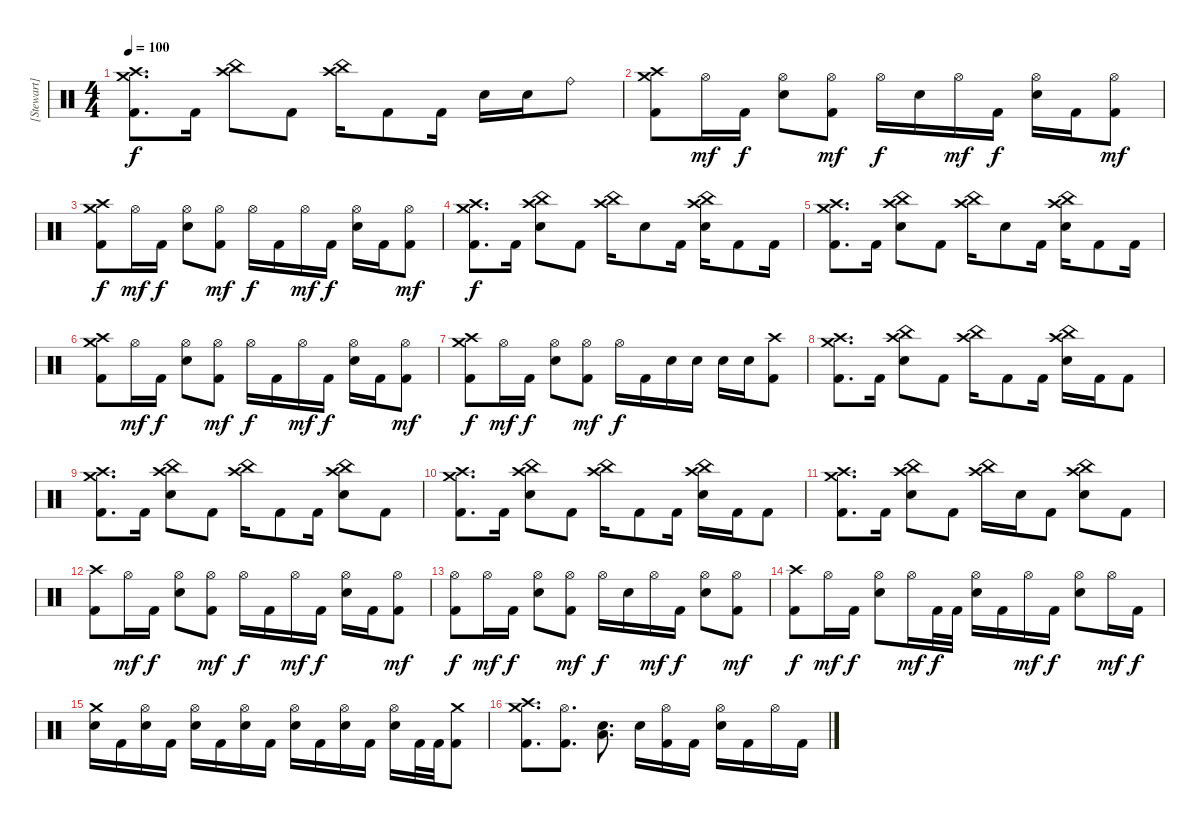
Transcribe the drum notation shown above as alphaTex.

\track ("[Stewart]" "[Stewart]") {instrument percussion}
\staff {score}
\articulation defaults
\ts (4 4)
\tempo 100
\clef neutral
\ks c
("Crash high (hit)" "Crash medium (hit)" "Kick (hit) 2").8{d dy f} "Kick (hit) 2".16 ("Crash high (hit)" "China (hit)").8 "Kick (hit) 2".8 ("Crash high (hit)" "China (hit)").16 "Kick (hit) 2".8 "Kick (hit) 2".16 "Electric Snare (hit)".16 "Electric Snare (hit)".16 "Ride (bell)".8 |
("Crash high (hit)" "Crash medium (hit)" "Kick (hit) 2").8 "Hi-Hat (open)".16{dy mf} "Kick (hit) 2".16{dy f} ("Hi-Hat (open)" "Electric Snare (hit)").8 ("Hi-Hat (open)" "Kick (hit) 2").8{dy mf} "Hi-Hat (open)".16{dy f} "Electric Snare (hit)".16 "Hi-Hat (open)".16{dy mf} "Kick (hit) 2".16{dy f} ("Hi-Hat (open)" "Electric Snare (hit)").16 "Kick (hit) 2".16 ("Hi-Hat (open)" "Kick (hit) 2").8{dy mf} |
("Crash high (hit)" "Crash medium (hit)" "Kick (hit) 2").8{dy f} "Hi-Hat (open)".16{dy mf} "Kick (hit) 2".16{dy f} ("Hi-Hat (open)" "Electric Snare (hit)").8 ("Hi-Hat (open)" "Kick (hit) 2").8{dy mf} "Hi-Hat (open)".16{dy f} "Kick (hit) 2".16 "Hi-Hat (open)".16{dy mf} "Kick (hit) 2".16{dy f} ("Hi-Hat (open)" "Electric Snare (hit)").16 "Kick (hit) 2".16 ("Hi-Hat (open)" "Kick (hit) 2").8{dy mf} |
("Crash high (hit)" "Crash medium (hit)" "Kick (hit) 2").8{d dy f} "Kick (hit) 2".16 ("Crash high (hit)" "China (hit)" "Electric Snare (hit)").8 "Kick (hit) 2".8 ("Crash high (hit)" "China (hit)").16 "Electric Snare (hit)".8 "Kick (hit) 2".16 ("Crash high (hit)" "China (hit)" "Electric Snare (hit)").16 "Kick (hit) 2".8 "Kick (hit) 2".16 |
("Crash high (hit)" "Crash medium (hit)" "Kick (hit) 2").8{d} "Kick (hit) 2".16 ("Crash high (hit)" "China (hit)" "Electric Snare (hit)").8 "Kick (hit) 2".8 ("Crash high (hit)" "China (hit)").16 "Electric Snare (hit)".8 "Kick (hit) 2".16 ("Crash high (hit)" "China (hit)" "Electric Snare (hit)").16 "Kick (hit) 2".8 "Kick (hit) 2".16 |
("Crash high (hit)" "Crash medium (hit)" "Kick (hit) 2").8 "Hi-Hat (open)".16{dy mf} "Kick (hit) 2".16{dy f} ("Hi-Hat (open)" "Electric Snare (hit)").8 ("Hi-Hat (open)" "Kick (hit) 2").8{dy mf} "Hi-Hat (open)".16{dy f} "Kick (hit) 2".16 "Hi-Hat (open)".16{dy mf} "Kick (hit) 2".16{dy f} ("Hi-Hat (open)" "Electric Snare (hit)").16 "Kick (hit) 2".16 ("Hi-Hat (open)" "Kick (hit) 2").8{dy mf} |
("Crash high (hit)" "Crash medium (hit)" "Kick (hit) 2").8{dy f} "Hi-Hat (open)".16{dy mf} "Kick (hit) 2".16{dy f} ("Hi-Hat (open)" "Electric Snare (hit)").8 ("Hi-Hat (open)" "Kick (hit) 2").8{dy mf} "Hi-Hat (open)".16{dy f} "Kick (hit) 2".16 "Electric Snare (hit)".16 "Electric Snare (hit)".16 "Electric Snare (hit)".16 "Electric Snare (hit)".16 ("Crash high (hit)" "Kick (hit) 2").8 |
("Crash high (hit)" "Crash medium (hit)" "Kick (hit) 2").8{d} "Kick (hit) 2".16 ("Crash high (hit)" "China (hit)" "Electric Snare (hit)").8 "Kick (hit) 2".8 ("Crash high (hit)" "China (hit)").16 "Kick (hit) 2".8 "Kick (hit) 2".16 ("Crash high (hit)" "China (hit)" "Electric Snare (hit)").16 "Kick (hit) 2".16 "Kick (hit) 2".8 |
("Crash high (hit)" "Crash medium (hit)" "Kick (hit) 2").8{d} "Kick (hit) 2".16 ("Crash high (hit)" "China (hit)" "Electric Snare (hit)").8 "Kick (hit) 2".8 ("Crash high (hit)" "China (hit)").16 "Kick (hit) 2".8 "Kick (hit) 2".16 ("Crash high (hit)" "China (hit)" "Electric Snare (hit)").8 "Kick (hit) 2".8 |
("Crash high (hit)" "Crash medium (hit)" "Kick (hit) 2").8{d} "Kick (hit) 2".16 ("Crash high (hit)" "China (hit)" "Electric Snare (hit)").8 "Kick (hit) 2".8 ("Crash high (hit)" "China (hit)").16 "Kick (hit) 2".8 "Kick (hit) 2".16 ("Crash high (hit)" "China (hit)" "Electric Snare (hit)").16 "Kick (hit) 2".16 "Kick (hit) 2".8 |
("Crash high (hit)" "Crash medium (hit)" "Kick (hit) 2").8{d} "Kick (hit) 2".16 ("Crash high (hit)" "China (hit)" "Electric Snare (hit)").8 "Kick (hit) 2".8 ("Crash high (hit)" "China (hit)").16 "Electric Snare (hit)".16 "Kick (hit) 2".8 ("Crash high (hit)" "China (hit)" "Electric Snare (hit)").8 "Kick (hit) 2".8 |
("Crash high (hit)" "Kick (hit) 2").8 "Hi-Hat (open)".16{dy mf} "Kick (hit) 2".16{dy f} ("Hi-Hat (open)" "Electric Snare (hit)").8 ("Hi-Hat (open)" "Kick (hit) 2").8{dy mf} "Hi-Hat (open)".16{dy f} "Kick (hit) 2".16 "Hi-Hat (open)".16{dy mf} "Kick (hit) 2".16{dy f} ("Hi-Hat (open)" "Electric Snare (hit)").16 "Kick (hit) 2".16 ("Hi-Hat (open)" "Kick (hit) 2").8{dy mf} |
("Hi-Hat (open)" "Kick (hit) 2").8{dy f} "Hi-Hat (open)".16{dy mf} "Kick (hit) 2".16{dy f} ("Hi-Hat (open)" "Electric Snare (hit)").8 ("Hi-Hat (open)" "Kick (hit) 2").8{dy mf} "Hi-Hat (open)".16{dy f} "Electric Snare (hit)".16 "Hi-Hat (open)".16{dy mf} "Kick (hit) 2".16{dy f} ("Hi-Hat (open)" "Electric Snare (hit)").8 ("Hi-Hat (open)" "Kick (hit) 2").8{dy mf} |
("Crash high (hit)" "Kick (hit) 2").8{dy f} "Hi-Hat (open)".16{dy mf} "Kick (hit) 2".16{dy f} ("Hi-Hat (open)" "Electric Snare (hit)").8 "Hi-Hat (open)".16{dy mf} "Kick (hit) 2".32{dy f} "Kick (hit) 2".32 ("Hi-Hat (open)" "Electric Snare (hit)").16 "Kick (hit) 2".16 "Hi-Hat (open)".16{dy mf} "Kick (hit) 2".16{dy f} ("Hi-Hat (open)" "Electric Snare (hit)").8 "Hi-Hat (open)".16{dy mf} "Kick (hit) 2".16{dy f} |
("Crash medium (hit)" "Electric Snare (hit)").16 "Kick (hit) 2".16 ("Hi-Hat (open)" "Electric Snare (hit)").16 "Kick (hit) 2".16 ("Hi-Hat (open)" "Electric Snare (hit)").16 "Kick (hit) 2".16 ("Hi-Hat (open)" "Electric Snare (hit)").16 "Kick (hit) 2".16 ("Hi-Hat (open)" "Electric Snare (hit)").16 "Kick (hit) 2".16 ("Hi-Hat (open)" "Electric Snare (hit)").16 "Kick (hit) 2".16 ("Hi-Hat (open)" "Electric Snare (hit)").16 "Kick (hit) 2".32 "Kick (hit) 2".32 ("Crash medium (hit)" "Kick (hit) 2").8 |
("Crash high (hit)" "Crash medium (hit)" "Kick (hit) 2").8{d} ("Hi-Hat (open)" "Kick (hit) 2").8{d} ("Electric Snare (hit)" "Low Tom (hit)").8{d} "Electric Snare (hit)".16 ("Hi-Hat (open)" "Kick (hit) 2").16 "Kick (hit) 2".16 ("Hi-Hat (open)" "Electric Snare (hit)").16 "Kick (hit) 2".16 "Hi-Hat (open)".16 "Kick (hit) 2".16
